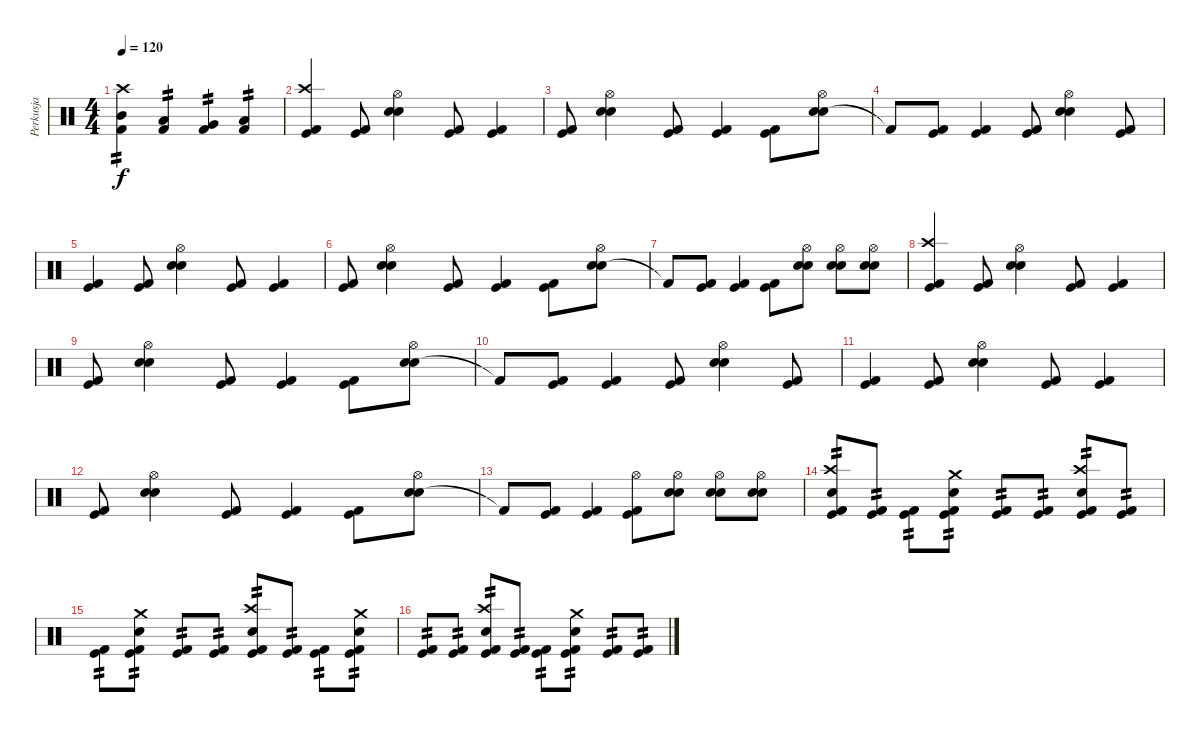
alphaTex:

\track ("Perkusja" "Perkusja") {instrument percussion}
\staff {score}
\articulation defaults
\ts (4 4)
\tempo 120
\clef neutral
\ks c
("Mid Tom (hit)" "Kick (hit) 2" "Crash high (hit)").4{tp 2 dy f} ("Low Tom (hit)" "Kick (hit) 2").4{tp 2} ("Very Low Tom (hit)" "Kick (hit) 2").4{tp 2} ("Low Floor Tom (hit)" "Kick (hit) 2").4{tp 2} |
("Kick (hit) 2" "Kick (hit)" "Crash high (hit)").4 ("Kick (hit) 2" "Kick (hit)").8 ("Snare (hit) 2" "Electric Snare (hit)" "Hi-Hat (open)").4 ("Kick (hit) 2" "Kick (hit)").8 ("Kick (hit) 2" "Kick (hit)").4 |
("Kick (hit) 2" "Kick (hit)").8 ("Snare (hit) 2" "Electric Snare (hit)" "Hi-Hat (open)").4 ("Kick (hit) 2" "Kick (hit)").8 ("Kick (hit) 2" "Kick (hit)").4 ("Kick (hit) 2" "Kick (hit)").8 ("Snare (hit) 2" "Electric Snare (hit)" "Hi-Hat (open)").8 |
"Kick (hit) 2"{t}.8 ("Kick (hit) 2" "Kick (hit)").8 ("Kick (hit) 2" "Kick (hit)").4 ("Kick (hit) 2" "Kick (hit)").8 ("Snare (hit) 2" "Electric Snare (hit)" "Hi-Hat (open)").4 ("Kick (hit) 2" "Kick (hit)").8 |
("Kick (hit) 2" "Kick (hit)").4 ("Kick (hit) 2" "Kick (hit)").8 ("Snare (hit) 2" "Electric Snare (hit)" "Hi-Hat (open)").4 ("Kick (hit) 2" "Kick (hit)").8 ("Kick (hit) 2" "Kick (hit)").4 |
("Kick (hit) 2" "Kick (hit)").8 ("Snare (hit) 2" "Electric Snare (hit)" "Hi-Hat (open)").4 ("Kick (hit) 2" "Kick (hit)").8 ("Kick (hit) 2" "Kick (hit)").4 ("Kick (hit) 2" "Kick (hit)").8 ("Snare (hit) 2" "Electric Snare (hit)" "Hi-Hat (open)").8 |
"Kick (hit) 2"{t}.8 ("Kick (hit) 2" "Kick (hit)").8 ("Kick (hit) 2" "Kick (hit)").4 ("Kick (hit) 2" "Kick (hit)").8 ("Snare (hit) 2" "Electric Snare (hit)" "Hi-Hat (open)").8 ("Snare (hit) 2" "Electric Snare (hit)" "Hi-Hat (open)").8 ("Snare (hit) 2" "Electric Snare (hit)" "Hi-Hat (open)").8 |
("Kick (hit) 2" "Kick (hit)" "Crash high (hit)").4 ("Kick (hit) 2" "Kick (hit)").8 ("Snare (hit) 2" "Electric Snare (hit)" "Hi-Hat (open)").4 ("Kick (hit) 2" "Kick (hit)").8 ("Kick (hit) 2" "Kick (hit)").4 |
("Kick (hit) 2" "Kick (hit)").8 ("Snare (hit) 2" "Electric Snare (hit)" "Hi-Hat (open)").4 ("Kick (hit) 2" "Kick (hit)").8 ("Kick (hit) 2" "Kick (hit)").4 ("Kick (hit) 2" "Kick (hit)").8 ("Snare (hit) 2" "Electric Snare (hit)" "Hi-Hat (open)").8 |
"Kick (hit) 2"{t}.8 ("Kick (hit) 2" "Kick (hit)").8 ("Kick (hit) 2" "Kick (hit)").4 ("Kick (hit) 2" "Kick (hit)").8 ("Snare (hit) 2" "Electric Snare (hit)" "Hi-Hat (open)").4 ("Kick (hit) 2" "Kick (hit)").8 |
("Kick (hit) 2" "Kick (hit)").4 ("Kick (hit) 2" "Kick (hit)").8 ("Snare (hit) 2" "Electric Snare (hit)" "Hi-Hat (open)").4 ("Kick (hit) 2" "Kick (hit)").8 ("Kick (hit) 2" "Kick (hit)").4 |
("Kick (hit) 2" "Kick (hit)").8 ("Snare (hit) 2" "Electric Snare (hit)" "Hi-Hat (open)").4 ("Kick (hit) 2" "Kick (hit)").8 ("Kick (hit) 2" "Kick (hit)").4 ("Kick (hit) 2" "Kick (hit)").8 ("Snare (hit) 2" "Electric Snare (hit)" "Hi-Hat (open)").8 |
"Kick (hit) 2"{t}.8 ("Kick (hit) 2" "Kick (hit)").8 ("Kick (hit) 2" "Kick (hit)").4 ("Kick (hit) 2" "Kick (hit)" "Hi-Hat (open)").8 ("Snare (hit) 2" "Electric Snare (hit)" "Hi-Hat (open)").8 ("Snare (hit) 2" "Electric Snare (hit)" "Hi-Hat (open)").8 ("Snare (hit) 2" "Electric Snare (hit)" "Hi-Hat (open)").8 |
("Kick (hit) 2" "Crash high (hit)" "Kick (hit)" "Snare (hit) 2").8{tp 2} ("Kick (hit) 2" "Kick (hit)").8{tp 2} ("Kick (hit) 2" "Kick (hit)").8{tp 2} ("Kick (hit) 2" "Crash medium (hit)" "Kick (hit)" "Snare (hit) 2").8{tp 2} ("Kick (hit) 2" "Kick (hit)").8{tp 2} ("Kick (hit) 2" "Kick (hit)").8{tp 2} ("Kick (hit) 2" "Crash high (hit)" "Kick (hit)" "Snare (hit) 2").8{tp 2} ("Kick (hit) 2" "Kick (hit)").8{tp 2} |
("Kick (hit) 2" "Kick (hit)").8{tp 2} ("Kick (hit) 2" "Crash medium (hit)" "Kick (hit)" "Snare (hit) 2").8{tp 2} ("Kick (hit) 2" "Kick (hit)").8{tp 2} ("Kick (hit) 2" "Kick (hit)").8{tp 2} ("Kick (hit) 2" "Crash high (hit)" "Kick (hit)" "Snare (hit) 2").8{tp 2} ("Kick (hit) 2" "Kick (hit)").8{tp 2} ("Kick (hit) 2" "Kick (hit)").8{tp 2} ("Kick (hit) 2" "Crash medium (hit)" "Kick (hit)" "Snare (hit) 2").8{tp 2} |
("Kick (hit) 2" "Kick (hit)").8{tp 2} ("Kick (hit) 2" "Kick (hit)").8{tp 2} ("Kick (hit) 2" "Crash high (hit)" "Kick (hit)" "Snare (hit) 2").8{tp 2} ("Kick (hit) 2" "Kick (hit)").8{tp 2} ("Kick (hit) 2" "Kick (hit)").8{tp 2} ("Kick (hit) 2" "Crash medium (hit)" "Kick (hit)" "Snare (hit) 2").8{tp 2} ("Kick (hit) 2" "Kick (hit)").8{tp 2} ("Kick (hit) 2" "Kick (hit)").8{tp 2}
